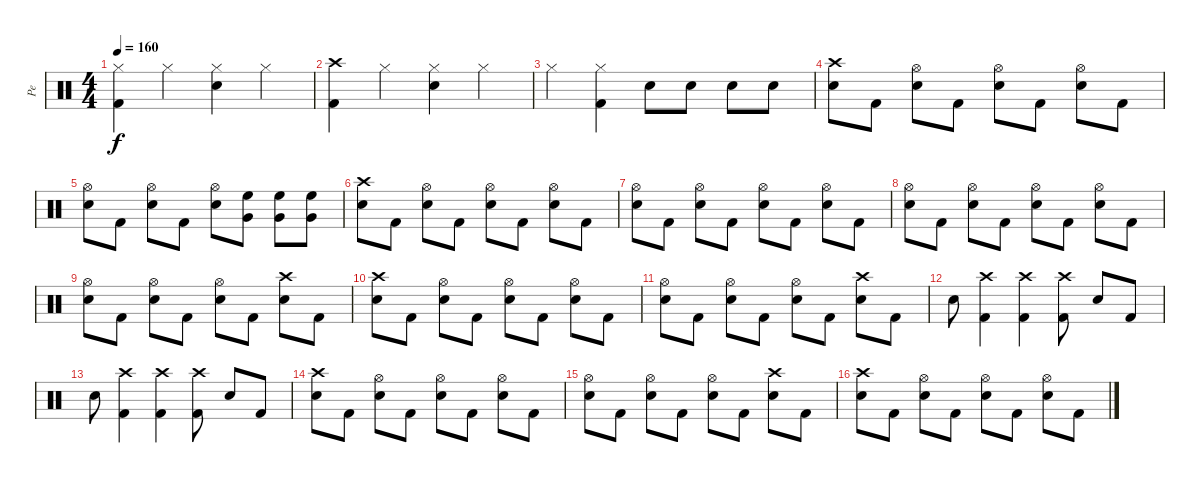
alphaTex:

\track ("Pe" "Pe") {instrument percussion}
\staff {score}
\articulation defaults
\ts (4 4)
\tempo 160
\clef neutral
\ks c
("Hi-Hat (closed)" "Kick (hit) 2").4{dy f} "Hi-Hat (closed)".4 ("Hi-Hat (closed)" "Snare (hit) 2").4 "Hi-Hat (closed)".4 |
("Crash high (hit)" "Kick (hit) 2").4 "Hi-Hat (closed)".4 ("Hi-Hat (closed)" "Snare (hit) 2").4 "Hi-Hat (closed)".4 |
"Hi-Hat (closed)".4 ("Hi-Hat (closed)" "Kick (hit) 2").4 "Snare (hit) 2".8 "Snare (hit) 2".8 "Snare (hit) 2".8 "Snare (hit) 2".8 |
("Crash high (hit)" "Snare (hit) 2").8 "Kick (hit) 2".8 ("Hi-Hat (open)" "Snare (hit) 2").8 "Kick (hit) 2".8 ("Hi-Hat (open)" "Snare (hit) 2").8 "Kick (hit) 2".8 ("Hi-Hat (open)" "Snare (hit) 2").8 "Kick (hit) 2".8 |
("Hi-Hat (open)" "Snare (hit) 2").8 "Kick (hit) 2".8 ("Hi-Hat (open)" "Snare (hit) 2").8 "Kick (hit) 2".8 ("Hi-Hat (open)" "Snare (hit) 2").8 ("High Floor Tom (hit)" "Very Low Tom (hit)").8 ("High Floor Tom (hit)" "Very Low Tom (hit)").8 ("High Floor Tom (hit)" "Very Low Tom (hit)").8 |
("Crash high (hit)" "Snare (hit) 2").8 "Kick (hit) 2".8 ("Hi-Hat (open)" "Snare (hit) 2").8 "Kick (hit) 2".8 ("Hi-Hat (open)" "Snare (hit) 2").8 "Kick (hit) 2".8 ("Hi-Hat (open)" "Snare (hit) 2").8 "Kick (hit) 2".8 |
("Hi-Hat (open)" "Snare (hit) 2").8 "Kick (hit) 2".8 ("Hi-Hat (open)" "Snare (hit) 2").8 "Kick (hit) 2".8 ("Hi-Hat (open)" "Snare (hit) 2").8 "Kick (hit) 2".8 ("Hi-Hat (open)" "Snare (hit) 2").8 "Kick (hit) 2".8 |
("Hi-Hat (open)" "Snare (hit) 2").8 "Kick (hit) 2".8 ("Hi-Hat (open)" "Snare (hit) 2").8 "Kick (hit) 2".8 ("Hi-Hat (open)" "Snare (hit) 2").8 "Kick (hit) 2".8 ("Hi-Hat (open)" "Snare (hit) 2").8 "Kick (hit) 2".8 |
("Hi-Hat (open)" "Snare (hit) 2").8 "Kick (hit) 2".8 ("Hi-Hat (open)" "Snare (hit) 2").8 "Kick (hit) 2".8 ("Hi-Hat (open)" "Snare (hit) 2").8 "Kick (hit) 2".8 ("Crash high (hit)" "Snare (hit) 2").8 "Kick (hit) 2".8 |
("Crash high (hit)" "Snare (hit) 2").8 "Kick (hit) 2".8 ("Hi-Hat (open)" "Snare (hit) 2").8 "Kick (hit) 2".8 ("Hi-Hat (open)" "Snare (hit) 2").8 "Kick (hit) 2".8 ("Hi-Hat (open)" "Snare (hit) 2").8 "Kick (hit) 2".8 |
("Hi-Hat (open)" "Snare (hit) 2").8 "Kick (hit) 2".8 ("Hi-Hat (open)" "Snare (hit) 2").8 "Kick (hit) 2".8 ("Hi-Hat (open)" "Snare (hit) 2").8 "Kick (hit) 2".8 ("Crash high (hit)" "Snare (hit) 2").8 "Kick (hit) 2".8 |
"Snare (hit) 2".8 ("Crash high (hit)" "Kick (hit) 2").4 ("Crash high (hit)" "Kick (hit) 2").4 ("Kick (hit) 2" "Crash high (hit)").8 "Snare (hit) 2".8 "Kick (hit) 2".8 |
"Snare (hit) 2".8 ("Crash high (hit)" "Kick (hit) 2").4 ("Crash high (hit)" "Kick (hit) 2").4 ("Kick (hit) 2" "Crash high (hit)").8 "Snare (hit) 2".8 "Kick (hit) 2".8 |
("Crash high (hit)" "Snare (hit) 2").8 "Kick (hit) 2".8 ("Hi-Hat (open)" "Snare (hit) 2").8 "Kick (hit) 2".8 ("Hi-Hat (open)" "Snare (hit) 2").8 "Kick (hit) 2".8 ("Hi-Hat (open)" "Snare (hit) 2").8 "Kick (hit) 2".8 |
("Hi-Hat (open)" "Snare (hit) 2").8 "Kick (hit) 2".8 ("Hi-Hat (open)" "Snare (hit) 2").8 "Kick (hit) 2".8 ("Hi-Hat (open)" "Snare (hit) 2").8 "Kick (hit) 2".8 ("Crash high (hit)" "Snare (hit) 2").8 "Kick (hit) 2".8 |
("Crash high (hit)" "Snare (hit) 2").8 "Kick (hit) 2".8 ("Hi-Hat (open)" "Snare (hit) 2").8 "Kick (hit) 2".8 ("Hi-Hat (open)" "Snare (hit) 2").8 "Kick (hit) 2".8 ("Hi-Hat (open)" "Snare (hit) 2").8 "Kick (hit) 2".8
